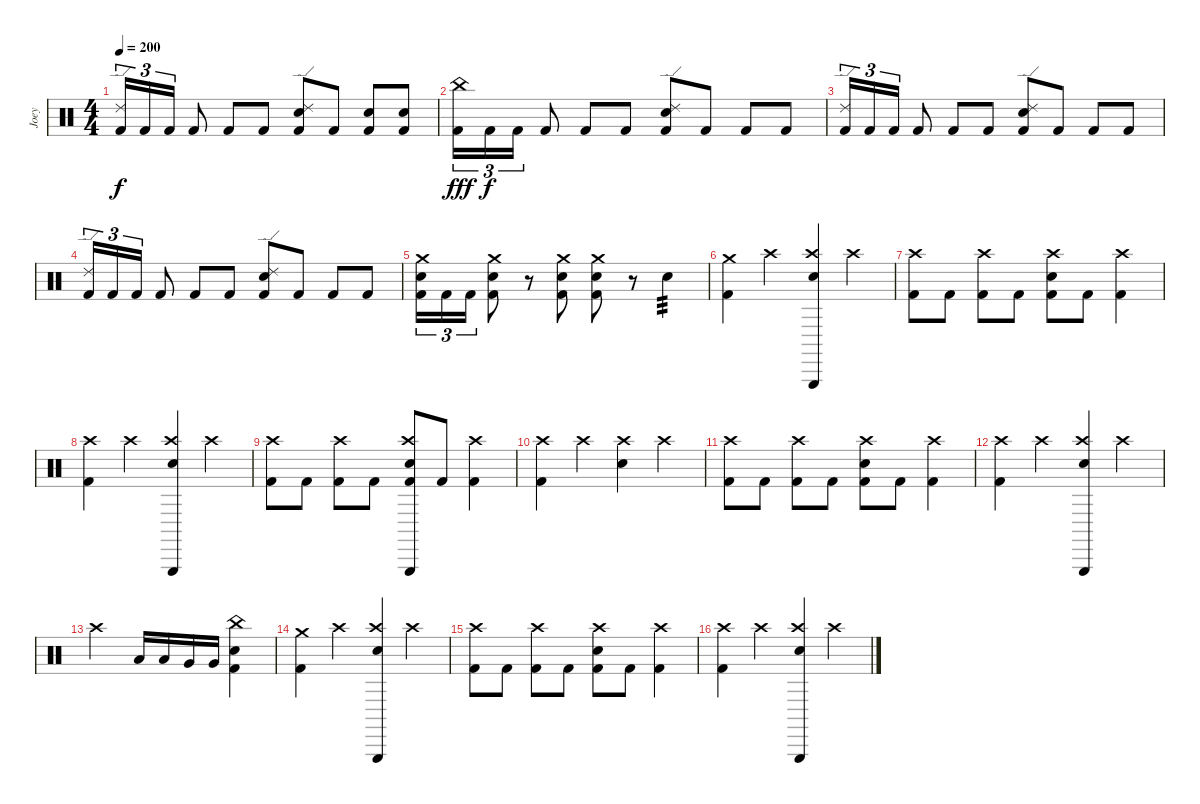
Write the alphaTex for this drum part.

\track ("Joey" "Joey") {instrument percussion}
\staff {score}
\articulation defaults
\ts (4 4)
\tempo 200
\clef neutral
\ks c
("Ride (edge) 2" "Kick (hit) 2").16{tu (3 2) dy f} "Kick (hit) 2".16{tu (3 2)} "Kick (hit) 2".16{tu (3 2)} "Kick (hit) 2".8 "Kick (hit) 2".8 "Kick (hit) 2".8 ("Ride (edge) 2" "Electric Snare (hit)" "Kick (hit) 2").8 "Kick (hit) 2".8 ("Electric Snare (hit)" "Kick (hit) 2").8 ("Electric Snare (hit)" "Kick (hit) 2").8 |
("China (hit)" "Kick (hit) 2").16{tu (3 2) dy fff} "Kick (hit) 2".16{tu (3 2) dy f} "Kick (hit) 2".16{tu (3 2)} "Kick (hit) 2".8 "Kick (hit) 2".8 "Kick (hit) 2".8 ("Ride (edge) 2" "Electric Snare (hit)" "Kick (hit) 2").8 "Kick (hit) 2".8 "Kick (hit) 2".8 "Kick (hit) 2".8 |
("Ride (edge) 2" "Kick (hit) 2").16{tu (3 2)} "Kick (hit) 2".16{tu (3 2)} "Kick (hit) 2".16{tu (3 2)} "Kick (hit) 2".8 "Kick (hit) 2".8 "Kick (hit) 2".8 ("Ride (edge) 2" "Electric Snare (hit)" "Kick (hit) 2").8 "Kick (hit) 2".8 "Kick (hit) 2".8 "Kick (hit) 2".8 |
("Ride (edge) 2" "Kick (hit) 2").16{tu (3 2)} "Kick (hit) 2".16{tu (3 2)} "Kick (hit) 2".16{tu (3 2)} "Kick (hit) 2".8 "Kick (hit) 2".8 "Kick (hit) 2".8 ("Ride (edge) 2" "Electric Snare (hit)" "Kick (hit) 2").8 "Kick (hit) 2".8 "Kick (hit) 2".8 "Kick (hit) 2".8 |
("Crash medium (hit)" "Electric Snare (hit)" "Kick (hit) 2").16{tu (3 2)} "Kick (hit) 2".16{tu (3 2)} "Kick (hit) 2".16{tu (3 2)} ("Crash medium (hit)" "Electric Snare (hit)" "Kick (hit) 2").8 r.8 ("Crash medium (hit)" "Electric Snare (hit)" "Kick (hit) 2").8 ("Crash medium (hit)" "Electric Snare (hit)" "Kick (hit) 2").8 r.8 "Electric Snare (hit)".4{tp 3} |
("Crash medium (hit)" "Kick (hit) 2").4 "Crash high (hit)".4 ("Crash high (hit)" "Triangle (hit)" "Electric Snare (hit)").4 "Crash high (hit)".4 |
("Crash high (hit)" "Kick (hit) 2").8 "Kick (hit) 2".8 ("Crash high (hit)" "Kick (hit) 2").8 "Kick (hit) 2".8 ("Crash high (hit)" "Electric Snare (hit)" "Kick (hit) 2").8 "Kick (hit) 2".8 ("Crash high (hit)" "Kick (hit) 2").4 |
("Crash high (hit)" "Kick (hit) 2").4 "Crash high (hit)".4 ("Crash high (hit)" "Triangle (hit)" "Electric Snare (hit)").4 "Crash high (hit)".4 |
("Crash high (hit)" "Kick (hit) 2").8 "Kick (hit) 2".8 ("Crash high (hit)" "Kick (hit) 2").8 "Kick (hit) 2".8 ("Crash high (hit)" "Triangle (hit)" "Electric Snare (hit)" "Kick (hit) 2").8 "Kick (hit) 2".8 ("Crash high (hit)" "Kick (hit) 2").4 |
("Crash high (hit)" "Kick (hit) 2").4 "Crash high (hit)".4 ("Crash high (hit)" "Electric Snare (hit)").4 "Crash high (hit)".4 |
("Crash high (hit)" "Kick (hit) 2").8 "Kick (hit) 2".8 ("Crash high (hit)" "Kick (hit) 2").8 "Kick (hit) 2".8 ("Crash high (hit)" "Electric Snare (hit)" "Kick (hit) 2").8 "Kick (hit) 2".8 ("Crash high (hit)" "Kick (hit) 2").4 |
("Crash high (hit)" "Kick (hit) 2").4 "Crash high (hit)".4 ("Crash high (hit)" "Triangle (hit)" "Electric Snare (hit)").4 "Crash high (hit)".4 |
"Crash high (hit)".2 "Low Tom (hit)".16 "Low Tom (hit)".16 "Very Low Tom (hit)".16 "Very Low Tom (hit)".16 ("China (hit)" "Electric Snare (hit)" "Kick (hit) 2").4 |
("Crash medium (hit)" "Kick (hit) 2").4 "Crash high (hit)".4 ("Crash high (hit)" "Triangle (hit)" "Electric Snare (hit)").4 "Crash high (hit)".4 |
("Crash high (hit)" "Kick (hit) 2").8 "Kick (hit) 2".8 ("Crash high (hit)" "Kick (hit) 2").8 "Kick (hit) 2".8 ("Crash high (hit)" "Electric Snare (hit)" "Kick (hit) 2").8 "Kick (hit) 2".8 ("Crash high (hit)" "Kick (hit) 2").4 |
("Crash high (hit)" "Kick (hit) 2").4 "Crash high (hit)".4 ("Crash high (hit)" "Triangle (hit)" "Electric Snare (hit)").4 "Crash high (hit)".4
